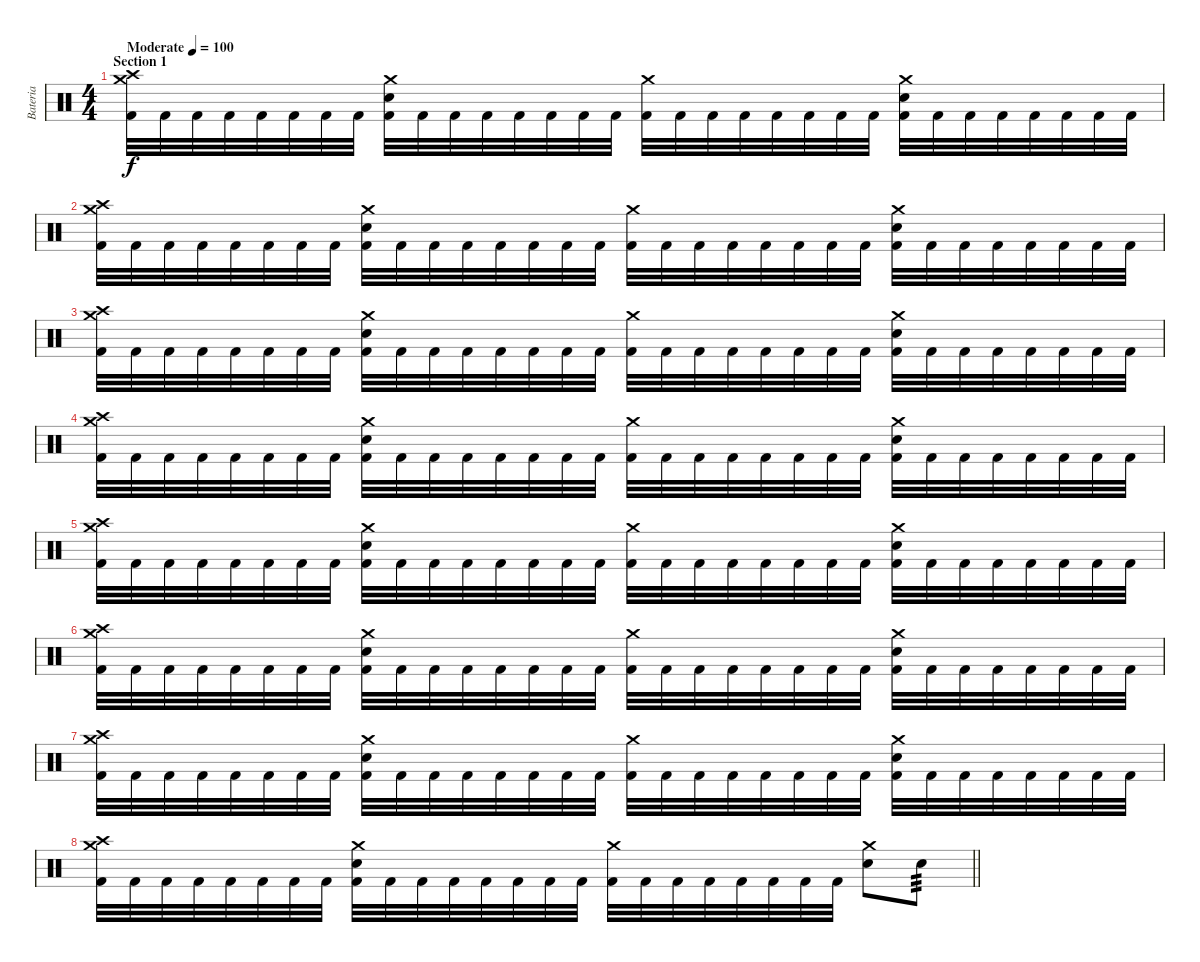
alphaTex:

\track ("Bateria" "Bateria") {instrument percussion}
\staff {score}
\articulation defaults
\ts (4 4)
\section ("" "Section 1")
\tempo (100 "Moderate")
\clef neutral
\ks c
("Crash high (hit)" "Crash medium (hit)" "Kick (hit) 2").32{dy f} "Kick (hit) 2".32 "Kick (hit) 2".32 "Kick (hit) 2".32 "Kick (hit) 2".32 "Kick (hit) 2".32 "Kick (hit) 2".32 "Kick (hit) 2".32 ("Crash medium (hit)" "Snare (hit) 2" "Kick (hit) 2").32 "Kick (hit) 2".32 "Kick (hit) 2".32 "Kick (hit) 2".32 "Kick (hit) 2".32 "Kick (hit) 2".32 "Kick (hit) 2".32 "Kick (hit) 2".32 ("Crash medium (hit)" "Kick (hit) 2").32 "Kick (hit) 2".32 "Kick (hit) 2".32 "Kick (hit) 2".32 "Kick (hit) 2".32 "Kick (hit) 2".32 "Kick (hit) 2".32 "Kick (hit) 2".32 ("Crash medium (hit)" "Snare (hit) 2" "Kick (hit) 2").32 "Kick (hit) 2".32 "Kick (hit) 2".32 "Kick (hit) 2".32 "Kick (hit) 2".32 "Kick (hit) 2".32 "Kick (hit) 2".32 "Kick (hit) 2".32 |
("Crash high (hit)" "Crash medium (hit)" "Kick (hit) 2").32 "Kick (hit) 2".32 "Kick (hit) 2".32 "Kick (hit) 2".32 "Kick (hit) 2".32 "Kick (hit) 2".32 "Kick (hit) 2".32 "Kick (hit) 2".32 ("Crash medium (hit)" "Snare (hit) 2" "Kick (hit) 2").32 "Kick (hit) 2".32 "Kick (hit) 2".32 "Kick (hit) 2".32 "Kick (hit) 2".32 "Kick (hit) 2".32 "Kick (hit) 2".32 "Kick (hit) 2".32 ("Crash medium (hit)" "Kick (hit) 2").32 "Kick (hit) 2".32 "Kick (hit) 2".32 "Kick (hit) 2".32 "Kick (hit) 2".32 "Kick (hit) 2".32 "Kick (hit) 2".32 "Kick (hit) 2".32 ("Crash medium (hit)" "Snare (hit) 2" "Kick (hit) 2").32 "Kick (hit) 2".32 "Kick (hit) 2".32 "Kick (hit) 2".32 "Kick (hit) 2".32 "Kick (hit) 2".32 "Kick (hit) 2".32 "Kick (hit) 2".32 |
("Crash high (hit)" "Crash medium (hit)" "Kick (hit) 2").32 "Kick (hit) 2".32 "Kick (hit) 2".32 "Kick (hit) 2".32 "Kick (hit) 2".32 "Kick (hit) 2".32 "Kick (hit) 2".32 "Kick (hit) 2".32 ("Crash medium (hit)" "Snare (hit) 2" "Kick (hit) 2").32 "Kick (hit) 2".32 "Kick (hit) 2".32 "Kick (hit) 2".32 "Kick (hit) 2".32 "Kick (hit) 2".32 "Kick (hit) 2".32 "Kick (hit) 2".32 ("Crash medium (hit)" "Kick (hit) 2").32 "Kick (hit) 2".32 "Kick (hit) 2".32 "Kick (hit) 2".32 "Kick (hit) 2".32 "Kick (hit) 2".32 "Kick (hit) 2".32 "Kick (hit) 2".32 ("Crash medium (hit)" "Snare (hit) 2" "Kick (hit) 2").32 "Kick (hit) 2".32 "Kick (hit) 2".32 "Kick (hit) 2".32 "Kick (hit) 2".32 "Kick (hit) 2".32 "Kick (hit) 2".32 "Kick (hit) 2".32 |
("Crash high (hit)" "Crash medium (hit)" "Kick (hit) 2").32 "Kick (hit) 2".32 "Kick (hit) 2".32 "Kick (hit) 2".32 "Kick (hit) 2".32 "Kick (hit) 2".32 "Kick (hit) 2".32 "Kick (hit) 2".32 ("Crash medium (hit)" "Snare (hit) 2" "Kick (hit) 2").32 "Kick (hit) 2".32 "Kick (hit) 2".32 "Kick (hit) 2".32 "Kick (hit) 2".32 "Kick (hit) 2".32 "Kick (hit) 2".32 "Kick (hit) 2".32 ("Crash medium (hit)" "Kick (hit) 2").32 "Kick (hit) 2".32 "Kick (hit) 2".32 "Kick (hit) 2".32 "Kick (hit) 2".32 "Kick (hit) 2".32 "Kick (hit) 2".32 "Kick (hit) 2".32 ("Crash medium (hit)" "Snare (hit) 2" "Kick (hit) 2").32 "Kick (hit) 2".32 "Kick (hit) 2".32 "Kick (hit) 2".32 "Kick (hit) 2".32 "Kick (hit) 2".32 "Kick (hit) 2".32 "Kick (hit) 2".32 |
("Crash high (hit)" "Crash medium (hit)" "Kick (hit) 2").32 "Kick (hit) 2".32 "Kick (hit) 2".32 "Kick (hit) 2".32 "Kick (hit) 2".32 "Kick (hit) 2".32 "Kick (hit) 2".32 "Kick (hit) 2".32 ("Crash medium (hit)" "Snare (hit) 2" "Kick (hit) 2").32 "Kick (hit) 2".32 "Kick (hit) 2".32 "Kick (hit) 2".32 "Kick (hit) 2".32 "Kick (hit) 2".32 "Kick (hit) 2".32 "Kick (hit) 2".32 ("Crash medium (hit)" "Kick (hit) 2").32 "Kick (hit) 2".32 "Kick (hit) 2".32 "Kick (hit) 2".32 "Kick (hit) 2".32 "Kick (hit) 2".32 "Kick (hit) 2".32 "Kick (hit) 2".32 ("Crash medium (hit)" "Snare (hit) 2" "Kick (hit) 2").32 "Kick (hit) 2".32 "Kick (hit) 2".32 "Kick (hit) 2".32 "Kick (hit) 2".32 "Kick (hit) 2".32 "Kick (hit) 2".32 "Kick (hit) 2".32 |
("Crash high (hit)" "Crash medium (hit)" "Kick (hit) 2").32 "Kick (hit) 2".32 "Kick (hit) 2".32 "Kick (hit) 2".32 "Kick (hit) 2".32 "Kick (hit) 2".32 "Kick (hit) 2".32 "Kick (hit) 2".32 ("Crash medium (hit)" "Snare (hit) 2" "Kick (hit) 2").32 "Kick (hit) 2".32 "Kick (hit) 2".32 "Kick (hit) 2".32 "Kick (hit) 2".32 "Kick (hit) 2".32 "Kick (hit) 2".32 "Kick (hit) 2".32 ("Crash medium (hit)" "Kick (hit) 2").32 "Kick (hit) 2".32 "Kick (hit) 2".32 "Kick (hit) 2".32 "Kick (hit) 2".32 "Kick (hit) 2".32 "Kick (hit) 2".32 "Kick (hit) 2".32 ("Crash medium (hit)" "Snare (hit) 2" "Kick (hit) 2").32 "Kick (hit) 2".32 "Kick (hit) 2".32 "Kick (hit) 2".32 "Kick (hit) 2".32 "Kick (hit) 2".32 "Kick (hit) 2".32 "Kick (hit) 2".32 |
("Crash high (hit)" "Crash medium (hit)" "Kick (hit) 2").32 "Kick (hit) 2".32 "Kick (hit) 2".32 "Kick (hit) 2".32 "Kick (hit) 2".32 "Kick (hit) 2".32 "Kick (hit) 2".32 "Kick (hit) 2".32 ("Crash medium (hit)" "Snare (hit) 2" "Kick (hit) 2").32 "Kick (hit) 2".32 "Kick (hit) 2".32 "Kick (hit) 2".32 "Kick (hit) 2".32 "Kick (hit) 2".32 "Kick (hit) 2".32 "Kick (hit) 2".32 ("Crash medium (hit)" "Kick (hit) 2").32 "Kick (hit) 2".32 "Kick (hit) 2".32 "Kick (hit) 2".32 "Kick (hit) 2".32 "Kick (hit) 2".32 "Kick (hit) 2".32 "Kick (hit) 2".32 ("Crash medium (hit)" "Snare (hit) 2" "Kick (hit) 2").32 "Kick (hit) 2".32 "Kick (hit) 2".32 "Kick (hit) 2".32 "Kick (hit) 2".32 "Kick (hit) 2".32 "Kick (hit) 2".32 "Kick (hit) 2".32 |
\barLineRight lightlight
("Crash high (hit)" "Crash medium (hit)" "Kick (hit) 2").32 "Kick (hit) 2".32 "Kick (hit) 2".32 "Kick (hit) 2".32 "Kick (hit) 2".32 "Kick (hit) 2".32 "Kick (hit) 2".32 "Kick (hit) 2".32 ("Crash medium (hit)" "Snare (hit) 2" "Kick (hit) 2").32 "Kick (hit) 2".32 "Kick (hit) 2".32 "Kick (hit) 2".32 "Kick (hit) 2".32 "Kick (hit) 2".32 "Kick (hit) 2".32 "Kick (hit) 2".32 ("Crash medium (hit)" "Kick (hit) 2").32 "Kick (hit) 2".32 "Kick (hit) 2".32 "Kick (hit) 2".32 "Kick (hit) 2".32 "Kick (hit) 2".32 "Kick (hit) 2".32 "Kick (hit) 2".32 ("Crash medium (hit)" "Snare (hit) 2").8 "Snare (hit) 2".8{tp 3}
